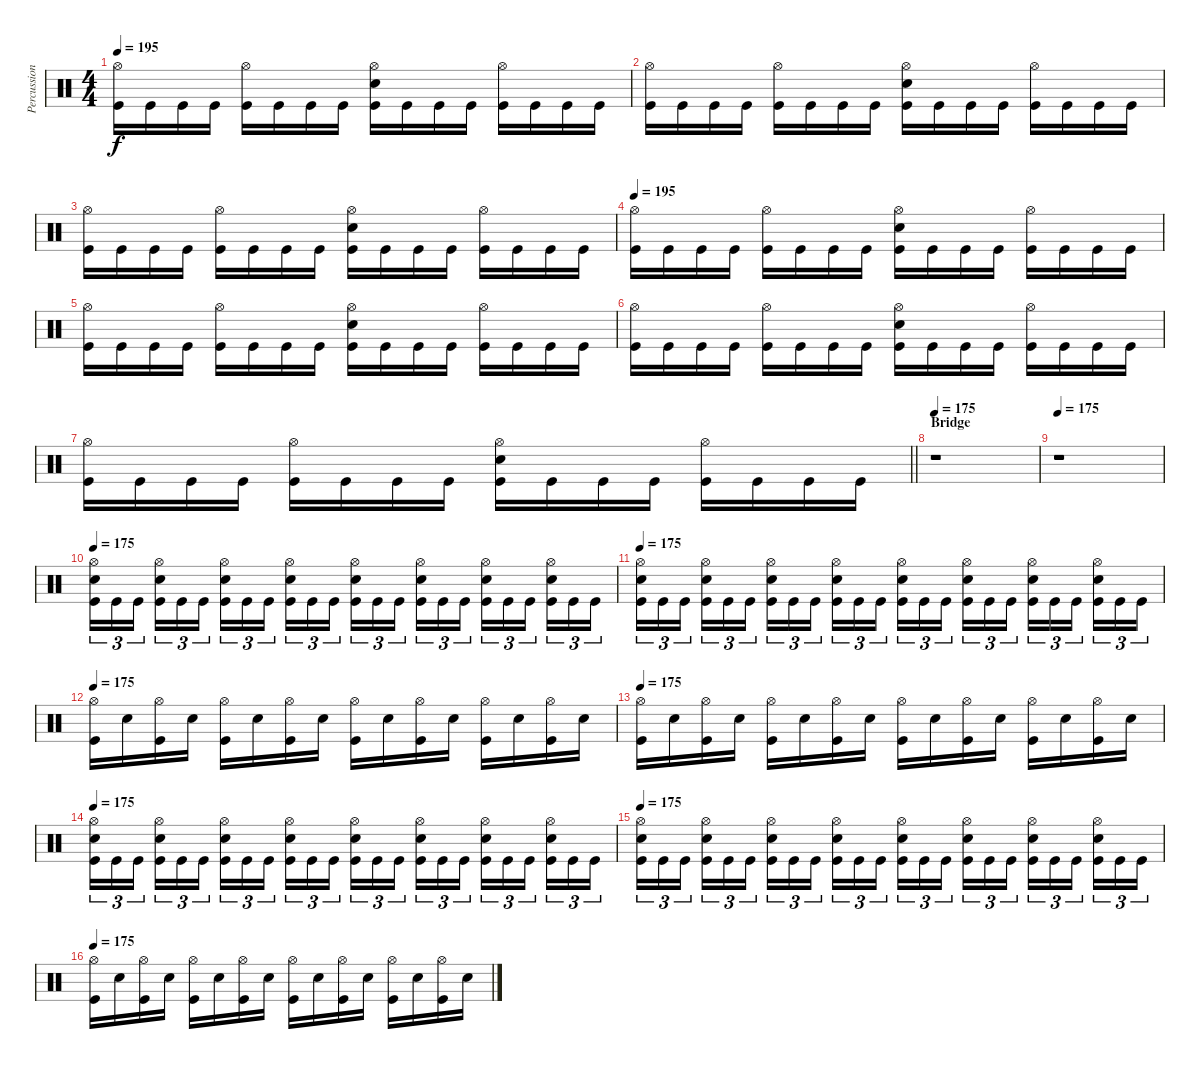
\track ("Percussion" "Percussion") {instrument percussion}
\staff {score}
\articulation defaults
\ts (4 4)
\tempo 195
\clef neutral
\ks c
("Hi-Hat (open)" "Kick (hit)").16{dy f} "Kick (hit)".16 "Kick (hit)".16 "Kick (hit)".16 ("Hi-Hat (open)" "Kick (hit)").16 "Kick (hit)".16 "Kick (hit)".16 "Kick (hit)".16 ("Hi-Hat (open)" "Electric Snare (hit)" "Kick (hit)").16 "Kick (hit)".16 "Kick (hit)".16 "Kick (hit)".16 ("Hi-Hat (open)" "Kick (hit)").16 "Kick (hit)".16 "Kick (hit)".16 "Kick (hit)".16 |
("Hi-Hat (open)" "Kick (hit)").16 "Kick (hit)".16 "Kick (hit)".16 "Kick (hit)".16 ("Hi-Hat (open)" "Kick (hit)").16 "Kick (hit)".16 "Kick (hit)".16 "Kick (hit)".16 ("Hi-Hat (open)" "Electric Snare (hit)" "Kick (hit)").16 "Kick (hit)".16 "Kick (hit)".16 "Kick (hit)".16 ("Hi-Hat (open)" "Kick (hit)").16 "Kick (hit)".16 "Kick (hit)".16 "Kick (hit)".16 |
("Hi-Hat (open)" "Kick (hit)").16 "Kick (hit)".16 "Kick (hit)".16 "Kick (hit)".16 ("Hi-Hat (open)" "Kick (hit)").16 "Kick (hit)".16 "Kick (hit)".16 "Kick (hit)".16 ("Hi-Hat (open)" "Electric Snare (hit)" "Kick (hit)").16 "Kick (hit)".16 "Kick (hit)".16 "Kick (hit)".16 ("Hi-Hat (open)" "Kick (hit)").16 "Kick (hit)".16 "Kick (hit)".16 "Kick (hit)".16 |
\tempo 195
("Hi-Hat (open)" "Kick (hit)").16 "Kick (hit)".16 "Kick (hit)".16 "Kick (hit)".16 ("Hi-Hat (open)" "Kick (hit)").16 "Kick (hit)".16 "Kick (hit)".16 "Kick (hit)".16 ("Hi-Hat (open)" "Electric Snare (hit)" "Kick (hit)").16 "Kick (hit)".16 "Kick (hit)".16 "Kick (hit)".16 ("Hi-Hat (open)" "Kick (hit)").16 "Kick (hit)".16 "Kick (hit)".16 "Kick (hit)".16 |
("Hi-Hat (open)" "Kick (hit)").16 "Kick (hit)".16 "Kick (hit)".16 "Kick (hit)".16 ("Hi-Hat (open)" "Kick (hit)").16 "Kick (hit)".16 "Kick (hit)".16 "Kick (hit)".16 ("Hi-Hat (open)" "Electric Snare (hit)" "Kick (hit)").16 "Kick (hit)".16 "Kick (hit)".16 "Kick (hit)".16 ("Hi-Hat (open)" "Kick (hit)").16 "Kick (hit)".16 "Kick (hit)".16 "Kick (hit)".16 |
("Hi-Hat (open)" "Kick (hit)").16 "Kick (hit)".16 "Kick (hit)".16 "Kick (hit)".16 ("Hi-Hat (open)" "Kick (hit)").16 "Kick (hit)".16 "Kick (hit)".16 "Kick (hit)".16 ("Hi-Hat (open)" "Electric Snare (hit)" "Kick (hit)").16 "Kick (hit)".16 "Kick (hit)".16 "Kick (hit)".16 ("Hi-Hat (open)" "Kick (hit)").16 "Kick (hit)".16 "Kick (hit)".16 "Kick (hit)".16 |
\barLineRight lightlight
("Hi-Hat (open)" "Kick (hit)").16 "Kick (hit)".16 "Kick (hit)".16 "Kick (hit)".16 ("Hi-Hat (open)" "Kick (hit)").16 "Kick (hit)".16 "Kick (hit)".16 "Kick (hit)".16 ("Hi-Hat (open)" "Electric Snare (hit)" "Kick (hit)").16 "Kick (hit)".16 "Kick (hit)".16 "Kick (hit)".16 ("Hi-Hat (open)" "Kick (hit)").16 "Kick (hit)".16 "Kick (hit)".16 "Kick (hit)".16 |
\section ("" "Bridge")
\tempo 175
r.1 |
\tempo 175
r.1 |
\tempo 175
("Hi-Hat (open)" "Electric Snare (hit)" "Kick (hit)").16{tu (3 2)} "Kick (hit)".16{tu (3 2)} "Kick (hit)".16{tu (3 2)} ("Hi-Hat (open)" "Electric Snare (hit)" "Kick (hit)").16{tu (3 2)} "Kick (hit)".16{tu (3 2)} "Kick (hit)".16{tu (3 2)} ("Hi-Hat (open)" "Electric Snare (hit)" "Kick (hit)").16{tu (3 2)} "Kick (hit)".16{tu (3 2)} "Kick (hit)".16{tu (3 2)} ("Hi-Hat (open)" "Electric Snare (hit)" "Kick (hit)").16{tu (3 2)} "Kick (hit)".16{tu (3 2)} "Kick (hit)".16{tu (3 2)} ("Hi-Hat (open)" "Electric Snare (hit)" "Kick (hit)").16{tu (3 2)} "Kick (hit)".16{tu (3 2)} "Kick (hit)".16{tu (3 2)} ("Hi-Hat (open)" "Electric Snare (hit)" "Kick (hit)").16{tu (3 2)} "Kick (hit)".16{tu (3 2)} "Kick (hit)".16{tu (3 2)} ("Hi-Hat (open)" "Electric Snare (hit)" "Kick (hit)").16{tu (3 2)} "Kick (hit)".16{tu (3 2)} "Kick (hit)".16{tu (3 2)} ("Hi-Hat (open)" "Electric Snare (hit)" "Kick (hit)").16{tu (3 2)} "Kick (hit)".16{tu (3 2)} "Kick (hit)".16{tu (3 2)} |
\tempo 175
("Hi-Hat (open)" "Electric Snare (hit)" "Kick (hit)").16{tu (3 2)} "Kick (hit)".16{tu (3 2)} "Kick (hit)".16{tu (3 2)} ("Hi-Hat (open)" "Electric Snare (hit)" "Kick (hit)").16{tu (3 2)} "Kick (hit)".16{tu (3 2)} "Kick (hit)".16{tu (3 2)} ("Hi-Hat (open)" "Electric Snare (hit)" "Kick (hit)").16{tu (3 2)} "Kick (hit)".16{tu (3 2)} "Kick (hit)".16{tu (3 2)} ("Hi-Hat (open)" "Electric Snare (hit)" "Kick (hit)").16{tu (3 2)} "Kick (hit)".16{tu (3 2)} "Kick (hit)".16{tu (3 2)} ("Hi-Hat (open)" "Electric Snare (hit)" "Kick (hit)").16{tu (3 2)} "Kick (hit)".16{tu (3 2)} "Kick (hit)".16{tu (3 2)} ("Hi-Hat (open)" "Electric Snare (hit)" "Kick (hit)").16{tu (3 2)} "Kick (hit)".16{tu (3 2)} "Kick (hit)".16{tu (3 2)} ("Hi-Hat (open)" "Electric Snare (hit)" "Kick (hit)").16{tu (3 2)} "Kick (hit)".16{tu (3 2)} "Kick (hit)".16{tu (3 2)} ("Hi-Hat (open)" "Electric Snare (hit)" "Kick (hit)").16{tu (3 2)} "Kick (hit)".16{tu (3 2)} "Kick (hit)".16{tu (3 2)} |
\tempo 175
("Hi-Hat (open)" "Kick (hit)").16 "Electric Snare (hit)".16 ("Hi-Hat (open)" "Kick (hit)").16 "Electric Snare (hit)".16 ("Hi-Hat (open)" "Kick (hit)").16 "Electric Snare (hit)".16 ("Hi-Hat (open)" "Kick (hit)").16 "Electric Snare (hit)".16 ("Hi-Hat (open)" "Kick (hit)").16 "Electric Snare (hit)".16 ("Hi-Hat (open)" "Kick (hit)").16 "Electric Snare (hit)".16 ("Hi-Hat (open)" "Kick (hit)").16 "Electric Snare (hit)".16 ("Hi-Hat (open)" "Kick (hit)").16 "Electric Snare (hit)".16 |
\tempo 175
("Hi-Hat (open)" "Kick (hit)").16 "Electric Snare (hit)".16 ("Hi-Hat (open)" "Kick (hit)").16 "Electric Snare (hit)".16 ("Hi-Hat (open)" "Kick (hit)").16 "Electric Snare (hit)".16 ("Hi-Hat (open)" "Kick (hit)").16 "Electric Snare (hit)".16 ("Hi-Hat (open)" "Kick (hit)").16 "Electric Snare (hit)".16 ("Hi-Hat (open)" "Kick (hit)").16 "Electric Snare (hit)".16 ("Hi-Hat (open)" "Kick (hit)").16 "Electric Snare (hit)".16 ("Hi-Hat (open)" "Kick (hit)").16 "Electric Snare (hit)".16 |
\tempo 175
("Hi-Hat (open)" "Electric Snare (hit)" "Kick (hit)").16{tu (3 2)} "Kick (hit)".16{tu (3 2)} "Kick (hit)".16{tu (3 2)} ("Hi-Hat (open)" "Electric Snare (hit)" "Kick (hit)").16{tu (3 2)} "Kick (hit)".16{tu (3 2)} "Kick (hit)".16{tu (3 2)} ("Hi-Hat (open)" "Electric Snare (hit)" "Kick (hit)").16{tu (3 2)} "Kick (hit)".16{tu (3 2)} "Kick (hit)".16{tu (3 2)} ("Hi-Hat (open)" "Electric Snare (hit)" "Kick (hit)").16{tu (3 2)} "Kick (hit)".16{tu (3 2)} "Kick (hit)".16{tu (3 2)} ("Hi-Hat (open)" "Electric Snare (hit)" "Kick (hit)").16{tu (3 2)} "Kick (hit)".16{tu (3 2)} "Kick (hit)".16{tu (3 2)} ("Hi-Hat (open)" "Electric Snare (hit)" "Kick (hit)").16{tu (3 2)} "Kick (hit)".16{tu (3 2)} "Kick (hit)".16{tu (3 2)} ("Hi-Hat (open)" "Electric Snare (hit)" "Kick (hit)").16{tu (3 2)} "Kick (hit)".16{tu (3 2)} "Kick (hit)".16{tu (3 2)} ("Hi-Hat (open)" "Electric Snare (hit)" "Kick (hit)").16{tu (3 2)} "Kick (hit)".16{tu (3 2)} "Kick (hit)".16{tu (3 2)} |
\tempo 175
("Hi-Hat (open)" "Electric Snare (hit)" "Kick (hit)").16{tu (3 2)} "Kick (hit)".16{tu (3 2)} "Kick (hit)".16{tu (3 2)} ("Hi-Hat (open)" "Electric Snare (hit)" "Kick (hit)").16{tu (3 2)} "Kick (hit)".16{tu (3 2)} "Kick (hit)".16{tu (3 2)} ("Hi-Hat (open)" "Electric Snare (hit)" "Kick (hit)").16{tu (3 2)} "Kick (hit)".16{tu (3 2)} "Kick (hit)".16{tu (3 2)} ("Hi-Hat (open)" "Electric Snare (hit)" "Kick (hit)").16{tu (3 2)} "Kick (hit)".16{tu (3 2)} "Kick (hit)".16{tu (3 2)} ("Hi-Hat (open)" "Electric Snare (hit)" "Kick (hit)").16{tu (3 2)} "Kick (hit)".16{tu (3 2)} "Kick (hit)".16{tu (3 2)} ("Hi-Hat (open)" "Electric Snare (hit)" "Kick (hit)").16{tu (3 2)} "Kick (hit)".16{tu (3 2)} "Kick (hit)".16{tu (3 2)} ("Hi-Hat (open)" "Electric Snare (hit)" "Kick (hit)").16{tu (3 2)} "Kick (hit)".16{tu (3 2)} "Kick (hit)".16{tu (3 2)} ("Hi-Hat (open)" "Electric Snare (hit)" "Kick (hit)").16{tu (3 2)} "Kick (hit)".16{tu (3 2)} "Kick (hit)".16{tu (3 2)} |
\tempo 175
("Hi-Hat (open)" "Kick (hit)").16 "Electric Snare (hit)".16 ("Hi-Hat (open)" "Kick (hit)").16 "Electric Snare (hit)".16 ("Hi-Hat (open)" "Kick (hit)").16 "Electric Snare (hit)".16 ("Hi-Hat (open)" "Kick (hit)").16 "Electric Snare (hit)".16 ("Hi-Hat (open)" "Kick (hit)").16 "Electric Snare (hit)".16 ("Hi-Hat (open)" "Kick (hit)").16 "Electric Snare (hit)".16 ("Hi-Hat (open)" "Kick (hit)").16 "Electric Snare (hit)".16 ("Hi-Hat (open)" "Kick (hit)").16 "Electric Snare (hit)".16
